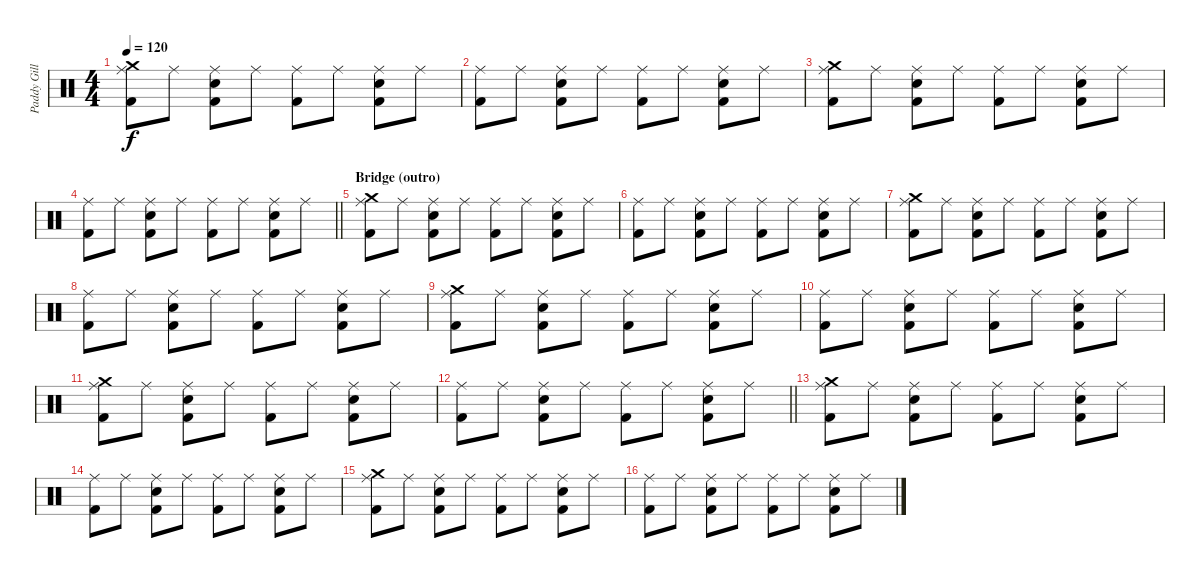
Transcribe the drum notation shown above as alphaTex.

\track ("Paddy Gillespie" "Paddy Gill") {instrument percussion}
\staff {score}
\articulation defaults
\ts (4 4)
\tempo 120
\clef neutral
\ks c
("Kick (hit) 2" "Crash medium (hit)" "Ride (middle)").8{dy f} "Ride (middle)".8 ("Kick (hit) 2" "Ride (middle)" "Snare (hit) 2").8 "Ride (middle)".8 ("Kick (hit) 2" "Ride (middle)").8 "Ride (middle)".8 ("Kick (hit) 2" "Ride (middle)" "Snare (hit) 2").8 "Ride (middle)".8 |
("Kick (hit) 2" "Ride (middle)").8 "Ride (middle)".8 ("Kick (hit) 2" "Ride (middle)" "Snare (hit) 2").8 "Ride (middle)".8 ("Kick (hit) 2" "Ride (middle)").8 "Ride (middle)".8 ("Kick (hit) 2" "Ride (middle)" "Snare (hit) 2").8 "Ride (middle)".8 |
("Kick (hit) 2" "Crash medium (hit)" "Ride (middle)").8 "Ride (middle)".8 ("Kick (hit) 2" "Ride (middle)" "Snare (hit) 2").8 "Ride (middle)".8 ("Kick (hit) 2" "Ride (middle)").8 "Ride (middle)".8 ("Kick (hit) 2" "Ride (middle)" "Snare (hit) 2").8 "Ride (middle)".8 |
\barLineRight lightlight
("Kick (hit) 2" "Ride (middle)").8 "Ride (middle)".8 ("Kick (hit) 2" "Ride (middle)" "Snare (hit) 2").8 "Ride (middle)".8 ("Kick (hit) 2" "Ride (middle)").8 "Ride (middle)".8 ("Kick (hit) 2" "Ride (middle)" "Snare (hit) 2").8 "Ride (middle)".8 |
\section ("" "Bridge (outro)")
("Kick (hit) 2" "Crash medium (hit)" "Ride (middle)").8 "Ride (middle)".8 ("Kick (hit) 2" "Ride (middle)" "Snare (hit) 2").8 "Ride (middle)".8 ("Kick (hit) 2" "Ride (middle)").8 "Ride (middle)".8 ("Kick (hit) 2" "Ride (middle)" "Snare (hit) 2").8 "Ride (middle)".8 |
("Kick (hit) 2" "Ride (middle)").8 "Ride (middle)".8 ("Kick (hit) 2" "Ride (middle)" "Snare (hit) 2").8 "Ride (middle)".8 ("Kick (hit) 2" "Ride (middle)").8 "Ride (middle)".8 ("Kick (hit) 2" "Ride (middle)" "Snare (hit) 2").8 "Ride (middle)".8 |
("Kick (hit) 2" "Crash medium (hit)" "Ride (middle)").8 "Ride (middle)".8 ("Kick (hit) 2" "Ride (middle)" "Snare (hit) 2").8 "Ride (middle)".8 ("Kick (hit) 2" "Ride (middle)").8 "Ride (middle)".8 ("Kick (hit) 2" "Ride (middle)" "Snare (hit) 2").8 "Ride (middle)".8 |
("Kick (hit) 2" "Ride (middle)").8 "Ride (middle)".8 ("Kick (hit) 2" "Ride (middle)" "Snare (hit) 2").8 "Ride (middle)".8 ("Kick (hit) 2" "Ride (middle)").8 "Ride (middle)".8 ("Kick (hit) 2" "Ride (middle)" "Snare (hit) 2").8 "Ride (middle)".8 |
("Kick (hit) 2" "Crash medium (hit)" "Ride (middle)").8 "Ride (middle)".8 ("Kick (hit) 2" "Ride (middle)" "Snare (hit) 2").8 "Ride (middle)".8 ("Kick (hit) 2" "Ride (middle)").8 "Ride (middle)".8 ("Kick (hit) 2" "Ride (middle)" "Snare (hit) 2").8 "Ride (middle)".8 |
("Kick (hit) 2" "Ride (middle)").8 "Ride (middle)".8 ("Kick (hit) 2" "Ride (middle)" "Snare (hit) 2").8 "Ride (middle)".8 ("Kick (hit) 2" "Ride (middle)").8 "Ride (middle)".8 ("Kick (hit) 2" "Ride (middle)" "Snare (hit) 2").8 "Ride (middle)".8 |
("Kick (hit) 2" "Crash medium (hit)" "Ride (middle)").8 "Ride (middle)".8 ("Kick (hit) 2" "Ride (middle)" "Snare (hit) 2").8 "Ride (middle)".8 ("Kick (hit) 2" "Ride (middle)").8 "Ride (middle)".8 ("Kick (hit) 2" "Ride (middle)" "Snare (hit) 2").8 "Ride (middle)".8 |
\barLineRight lightlight
("Kick (hit) 2" "Ride (middle)").8 "Ride (middle)".8 ("Kick (hit) 2" "Ride (middle)" "Snare (hit) 2").8 "Ride (middle)".8 ("Kick (hit) 2" "Ride (middle)").8 "Ride (middle)".8 ("Kick (hit) 2" "Ride (middle)" "Snare (hit) 2").8 "Ride (middle)".8 |
("Kick (hit) 2" "Crash medium (hit)" "Ride (middle)").8 "Ride (middle)".8 ("Kick (hit) 2" "Ride (middle)" "Snare (hit) 2").8 "Ride (middle)".8 ("Kick (hit) 2" "Ride (middle)").8 "Ride (middle)".8 ("Kick (hit) 2" "Ride (middle)" "Snare (hit) 2").8 "Ride (middle)".8 |
("Kick (hit) 2" "Ride (middle)").8 "Ride (middle)".8 ("Kick (hit) 2" "Ride (middle)" "Snare (hit) 2").8 "Ride (middle)".8 ("Kick (hit) 2" "Ride (middle)").8 "Ride (middle)".8 ("Kick (hit) 2" "Ride (middle)" "Snare (hit) 2").8 "Ride (middle)".8 |
("Kick (hit) 2" "Crash medium (hit)" "Ride (middle)").8 "Ride (middle)".8 ("Kick (hit) 2" "Ride (middle)" "Snare (hit) 2").8 "Ride (middle)".8 ("Kick (hit) 2" "Ride (middle)").8 "Ride (middle)".8 ("Kick (hit) 2" "Ride (middle)" "Snare (hit) 2").8 "Ride (middle)".8 |
("Kick (hit) 2" "Ride (middle)").8 "Ride (middle)".8 ("Kick (hit) 2" "Ride (middle)" "Snare (hit) 2").8 "Ride (middle)".8 ("Kick (hit) 2" "Ride (middle)").8 "Ride (middle)".8 ("Kick (hit) 2" "Ride (middle)" "Snare (hit) 2").8 "Ride (middle)".8
